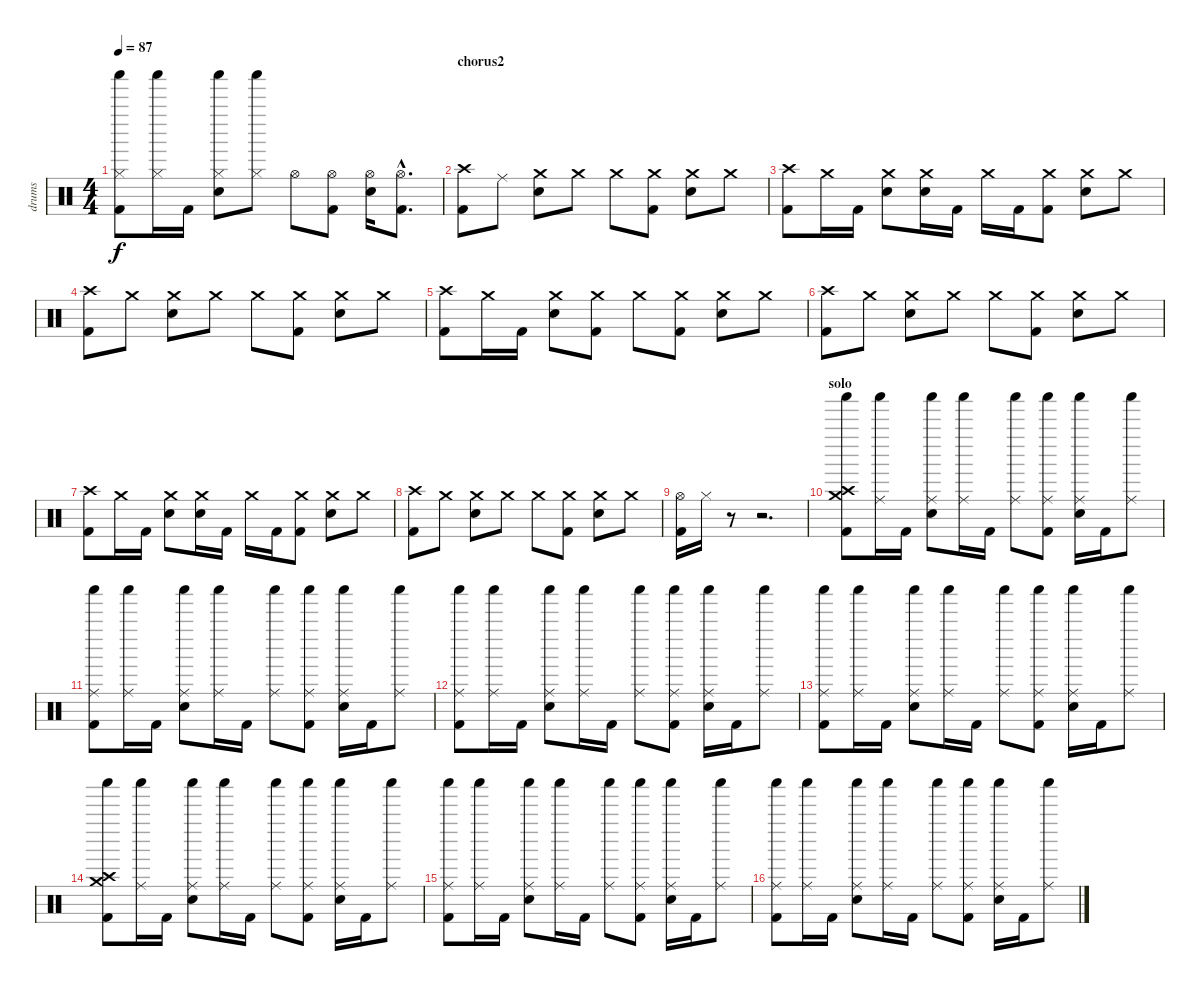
\track ("drums" "drums") {instrument percussion}
\staff {score}
\articulation defaults
\ts (4 4)
\tempo 87
\clef neutral
\ks c
("Shaker (hit)" "Hi-Hat (closed)" "Kick (hit) 2").8{dy f} ("Shaker (hit)" "Hi-Hat (closed)").16 "Kick (hit) 2".16 ("Shaker (hit)" "Hi-Hat (closed)" "Electric Snare (hit)").8 ("Shaker (hit)" "Hi-Hat (closed)").8 "Hi-Hat (open)".8 ("Hi-Hat (open)" "Kick (hit) 2").8 ("Hi-Hat (open)" "Electric Snare (hit)").16 ("Hi-Hat (open)"{hac} "Kick (hit) 2"{hac}).8{d} |
\section ("" "chorus2")
("Crash high (hit)" "Kick (hit) 2").8 "Ride (middle)".8 ("Crash medium (hit)" "Electric Snare (hit)").8 "Crash medium (hit)".8 "Crash medium (hit)".8 ("Crash medium (hit)" "Kick (hit) 2").8 ("Crash medium (hit)" "Electric Snare (hit)").8 "Crash medium (hit)".8 |
("Crash high (hit)" "Kick (hit) 2").8 "Crash medium (hit)".16 "Kick (hit) 2".16 ("Crash medium (hit)" "Electric Snare (hit)").8 ("Crash medium (hit)" "Electric Snare (hit)").16 "Kick (hit) 2".16 "Crash medium (hit)".16 "Kick (hit) 2".16 ("Crash medium (hit)" "Kick (hit) 2").8 ("Crash medium (hit)" "Electric Snare (hit)").8 "Crash medium (hit)".8 |
("Crash high (hit)" "Kick (hit) 2").8 "Crash medium (hit)".8 ("Crash medium (hit)" "Electric Snare (hit)").8 "Crash medium (hit)".8 "Crash medium (hit)".8 ("Crash medium (hit)" "Kick (hit) 2").8 ("Crash medium (hit)" "Electric Snare (hit)").8 "Crash medium (hit)".8 |
("Crash high (hit)" "Kick (hit) 2").8 "Crash medium (hit)".16 "Kick (hit) 2".16 ("Crash medium (hit)" "Electric Snare (hit)").8 ("Crash medium (hit)" "Kick (hit) 2").8 "Crash medium (hit)".8 ("Crash medium (hit)" "Kick (hit) 2").8 ("Crash medium (hit)" "Electric Snare (hit)").8 "Crash medium (hit)".8 |
("Crash high (hit)" "Kick (hit) 2").8 "Crash medium (hit)".8 ("Crash medium (hit)" "Electric Snare (hit)").8 "Crash medium (hit)".8 "Crash medium (hit)".8 ("Crash medium (hit)" "Kick (hit) 2").8 ("Crash medium (hit)" "Electric Snare (hit)").8 "Crash medium (hit)".8 |
("Crash high (hit)" "Kick (hit) 2").8 "Crash medium (hit)".16 "Kick (hit) 2".16 ("Crash medium (hit)" "Electric Snare (hit)").8 ("Crash medium (hit)" "Electric Snare (hit)").16 "Kick (hit) 2".16 "Crash medium (hit)".16 "Kick (hit) 2".16 ("Crash medium (hit)" "Kick (hit) 2").8 ("Crash medium (hit)" "Electric Snare (hit)").8 "Crash medium (hit)".8 |
("Crash high (hit)" "Kick (hit) 2").8 "Crash medium (hit)".8 ("Crash medium (hit)" "Electric Snare (hit)").8 "Crash medium (hit)".8 "Crash medium (hit)".8 ("Crash medium (hit)" "Kick (hit) 2").8 ("Crash medium (hit)" "Electric Snare (hit)").8 "Crash medium (hit)".8 |
("Hi-Hat (open)" "Kick (hit) 2").16 "Hi-Hat (closed)".16 r.8 r.2{d} |
\section ("" "solo")
("Shaker (hit)" "Crash high (hit)" "Crash medium (hit)" "Kick (hit) 2").8 ("Shaker (hit)" "Ride (middle)").16 "Kick (hit) 2".16 ("Shaker (hit)" "Ride (middle)" "Electric Snare (hit)").8 ("Shaker (hit)" "Ride (middle)").16 "Kick (hit) 2".16 ("Shaker (hit)" "Ride (middle)").8 ("Shaker (hit)" "Ride (middle)" "Kick (hit) 2").8 ("Shaker (hit)" "Ride (middle)" "Electric Snare (hit)").16 "Kick (hit) 2".16 ("Shaker (hit)" "Ride (middle)").8 |
("Shaker (hit)" "Ride (middle)" "Kick (hit) 2").8 ("Shaker (hit)" "Ride (middle)").16 "Kick (hit) 2".16 ("Shaker (hit)" "Ride (middle)" "Electric Snare (hit)").8 ("Shaker (hit)" "Ride (middle)").16 "Kick (hit) 2".16 ("Shaker (hit)" "Ride (middle)").8 ("Shaker (hit)" "Ride (middle)" "Kick (hit) 2").8 ("Shaker (hit)" "Ride (middle)" "Electric Snare (hit)").16 "Kick (hit) 2".16 ("Shaker (hit)" "Ride (middle)").8 |
("Shaker (hit)" "Ride (middle)" "Kick (hit) 2").8 ("Shaker (hit)" "Ride (middle)").16 "Kick (hit) 2".16 ("Shaker (hit)" "Ride (middle)" "Electric Snare (hit)").8 ("Shaker (hit)" "Ride (middle)").16 "Kick (hit) 2".16 ("Shaker (hit)" "Ride (middle)").8 ("Shaker (hit)" "Ride (middle)" "Kick (hit) 2").8 ("Shaker (hit)" "Ride (middle)" "Electric Snare (hit)").16 "Kick (hit) 2".16 ("Shaker (hit)" "Ride (middle)").8 |
("Shaker (hit)" "Ride (middle)" "Kick (hit) 2").8 ("Shaker (hit)" "Ride (middle)").16 "Kick (hit) 2".16 ("Shaker (hit)" "Ride (middle)" "Electric Snare (hit)").8 ("Shaker (hit)" "Ride (middle)").16 "Kick (hit) 2".16 ("Shaker (hit)" "Ride (middle)").8 ("Shaker (hit)" "Ride (middle)" "Kick (hit) 2").8 ("Shaker (hit)" "Ride (middle)" "Electric Snare (hit)").16 "Kick (hit) 2".16 ("Shaker (hit)" "Ride (middle)").8 |
("Shaker (hit)" "Crash high (hit)" "Crash medium (hit)" "Kick (hit) 2").8 ("Shaker (hit)" "Ride (middle)").16 "Kick (hit) 2".16 ("Shaker (hit)" "Ride (middle)" "Electric Snare (hit)").8 ("Shaker (hit)" "Ride (middle)").16 "Kick (hit) 2".16 ("Shaker (hit)" "Ride (middle)").8 ("Shaker (hit)" "Ride (middle)" "Kick (hit) 2").8 ("Shaker (hit)" "Ride (middle)" "Electric Snare (hit)").16 "Kick (hit) 2".16 ("Shaker (hit)" "Ride (middle)").8 |
("Shaker (hit)" "Ride (middle)" "Kick (hit) 2").8 ("Shaker (hit)" "Ride (middle)").16 "Kick (hit) 2".16 ("Shaker (hit)" "Ride (middle)" "Electric Snare (hit)").8 ("Shaker (hit)" "Ride (middle)").16 "Kick (hit) 2".16 ("Shaker (hit)" "Ride (middle)").8 ("Shaker (hit)" "Ride (middle)" "Kick (hit) 2").8 ("Shaker (hit)" "Ride (middle)" "Electric Snare (hit)").16 "Kick (hit) 2".16 ("Shaker (hit)" "Ride (middle)").8 |
("Shaker (hit)" "Ride (middle)" "Kick (hit) 2").8 ("Shaker (hit)" "Ride (middle)").16 "Kick (hit) 2".16 ("Shaker (hit)" "Ride (middle)" "Electric Snare (hit)").8 ("Shaker (hit)" "Ride (middle)").16 "Kick (hit) 2".16 ("Shaker (hit)" "Ride (middle)").8 ("Shaker (hit)" "Ride (middle)" "Kick (hit) 2").8 ("Shaker (hit)" "Ride (middle)" "Electric Snare (hit)").16 "Kick (hit) 2".16 ("Shaker (hit)" "Ride (middle)").8
